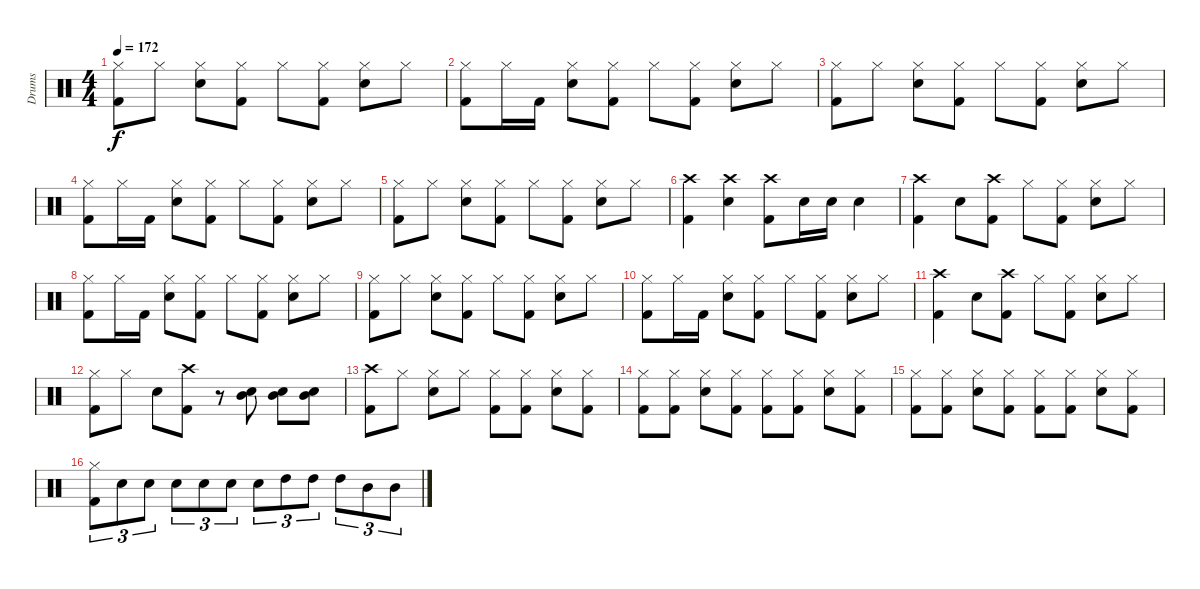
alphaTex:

\track ("Drums" "Drums") {instrument percussion}
\staff {score}
\articulation defaults
\ts (4 4)
\tempo 172
\clef neutral
\ks c
("Hi-Hat (closed)" "Kick (hit) 2").8{dy f} "Hi-Hat (closed)".8 ("Hi-Hat (closed)" "Electric Snare (hit)").8 ("Hi-Hat (closed)" "Kick (hit) 2").8 "Hi-Hat (closed)".8 ("Hi-Hat (closed)" "Kick (hit) 2").8 ("Hi-Hat (closed)" "Electric Snare (hit)").8 "Hi-Hat (closed)".8 |
("Hi-Hat (closed)" "Kick (hit) 2").8 "Hi-Hat (closed)".16 "Kick (hit) 2".16 ("Hi-Hat (closed)" "Electric Snare (hit)").8 ("Hi-Hat (closed)" "Kick (hit) 2").8 "Hi-Hat (closed)".8 ("Hi-Hat (closed)" "Kick (hit) 2").8 ("Hi-Hat (closed)" "Electric Snare (hit)").8 "Hi-Hat (closed)".8 |
("Hi-Hat (closed)" "Kick (hit) 2").8 "Hi-Hat (closed)".8 ("Hi-Hat (closed)" "Electric Snare (hit)").8 ("Hi-Hat (closed)" "Kick (hit) 2").8 "Hi-Hat (closed)".8 ("Hi-Hat (closed)" "Kick (hit) 2").8 ("Hi-Hat (closed)" "Electric Snare (hit)").8 "Hi-Hat (closed)".8 |
("Hi-Hat (closed)" "Kick (hit) 2").8 "Hi-Hat (closed)".16 "Kick (hit) 2".16 ("Hi-Hat (closed)" "Electric Snare (hit)").8 ("Hi-Hat (closed)" "Kick (hit) 2").8 "Hi-Hat (closed)".8 ("Hi-Hat (closed)" "Kick (hit) 2").8 ("Hi-Hat (closed)" "Electric Snare (hit)").8 "Hi-Hat (closed)".8 |
("Hi-Hat (closed)" "Kick (hit) 2").8 "Hi-Hat (closed)".8 ("Hi-Hat (closed)" "Electric Snare (hit)").8 ("Hi-Hat (closed)" "Kick (hit) 2").8 "Hi-Hat (closed)".8 ("Hi-Hat (closed)" "Kick (hit) 2").8 ("Hi-Hat (closed)" "Electric Snare (hit)").8 "Hi-Hat (closed)".8 |
("Crash high (hit)" "Kick (hit) 2").4 ("Crash high (hit)" "Electric Snare (hit)").4 ("Crash high (hit)" "Kick (hit) 2").8 "Electric Snare (hit)".16 "Electric Snare (hit)".16 "Electric Snare (hit)".4 |
("Crash high (hit)" "Kick (hit) 2").4 "Electric Snare (hit)".8 ("Crash high (hit)" "Kick (hit) 2").8 "Hi-Hat (closed)".8 ("Hi-Hat (closed)" "Kick (hit) 2").8 ("Hi-Hat (closed)" "Electric Snare (hit)").8 "Hi-Hat (closed)".8 |
("Hi-Hat (closed)" "Kick (hit) 2").8 "Hi-Hat (closed)".16 "Kick (hit) 2".16 ("Hi-Hat (closed)" "Electric Snare (hit)").8 ("Hi-Hat (closed)" "Kick (hit) 2").8 "Hi-Hat (closed)".8 ("Hi-Hat (closed)" "Kick (hit) 2").8 ("Hi-Hat (closed)" "Electric Snare (hit)").8 "Hi-Hat (closed)".8 |
("Hi-Hat (closed)" "Kick (hit) 2").8 "Hi-Hat (closed)".8 ("Hi-Hat (closed)" "Electric Snare (hit)").8 ("Hi-Hat (closed)" "Kick (hit) 2").8 "Hi-Hat (closed)".8 ("Hi-Hat (closed)" "Kick (hit) 2").8 ("Hi-Hat (closed)" "Electric Snare (hit)").8 "Hi-Hat (closed)".8 |
("Hi-Hat (closed)" "Kick (hit) 2").8 "Hi-Hat (closed)".16 "Kick (hit) 2".16 ("Hi-Hat (closed)" "Electric Snare (hit)").8 ("Hi-Hat (closed)" "Kick (hit) 2").8 "Hi-Hat (closed)".8 ("Hi-Hat (closed)" "Kick (hit) 2").8 ("Hi-Hat (closed)" "Electric Snare (hit)").8 "Hi-Hat (closed)".8 |
("Crash high (hit)" "Kick (hit) 2").4 "Electric Snare (hit)".8 ("Crash high (hit)" "Kick (hit) 2").8 "Hi-Hat (closed)".8 ("Hi-Hat (closed)" "Kick (hit) 2").8 ("Hi-Hat (closed)" "Electric Snare (hit)").8 "Hi-Hat (closed)".8 |
("Hi-Hat (closed)" "Kick (hit) 2").8 "Hi-Hat (closed)".8 "Electric Snare (hit)".8 ("Crash high (hit)" "Kick (hit) 2").8 r.8 ("Mid Tom (hit)" "Electric Snare (hit)").8 ("Mid Tom (hit)" "Electric Snare (hit)").8 ("Mid Tom (hit)" "Electric Snare (hit)").8 |
("Crash high (hit)" "Kick (hit) 2").8 "Hi-Hat (closed)".8 ("Hi-Hat (closed)" "Electric Snare (hit)").8 "Hi-Hat (closed)".8 ("Hi-Hat (closed)" "Kick (hit) 2").8 ("Hi-Hat (closed)" "Kick (hit) 2").8 ("Hi-Hat (closed)" "Electric Snare (hit)").8 ("Hi-Hat (closed)" "Kick (hit) 2").8 |
("Hi-Hat (closed)" "Kick (hit) 2").8 ("Hi-Hat (closed)" "Kick (hit) 2").8 ("Hi-Hat (closed)" "Electric Snare (hit)").8 ("Hi-Hat (closed)" "Kick (hit) 2").8 ("Hi-Hat (closed)" "Kick (hit) 2").8 ("Hi-Hat (closed)" "Kick (hit) 2").8 ("Hi-Hat (closed)" "Electric Snare (hit)").8 ("Hi-Hat (closed)" "Kick (hit) 2").8 |
("Hi-Hat (closed)" "Kick (hit) 2").8 ("Hi-Hat (closed)" "Kick (hit) 2").8 ("Hi-Hat (closed)" "Electric Snare (hit)").8 ("Hi-Hat (closed)" "Kick (hit) 2").8 ("Hi-Hat (closed)" "Kick (hit) 2").8 ("Hi-Hat (closed)" "Kick (hit) 2").8 ("Hi-Hat (closed)" "Electric Snare (hit)").8 ("Hi-Hat (closed)" "Kick (hit) 2").8 |
("Hi-Hat (closed)" "Kick (hit) 2").8{tu (3 2)} "Electric Snare (hit)".8{tu (3 2)} "Electric Snare (hit)".8{tu (3 2)} "Electric Snare (hit)".8{tu (3 2)} "Electric Snare (hit)".8{tu (3 2)} "Electric Snare (hit)".8{tu (3 2)} "Electric Snare (hit)".8{tu (3 2)} "High Tom (hit)".8{tu (3 2)} "High Tom (hit)".8{tu (3 2)} "High Tom (hit)".8{tu (3 2)} "Mid Tom (hit)".8{tu (3 2)} "Mid Tom (hit)".8{tu (3 2)}
